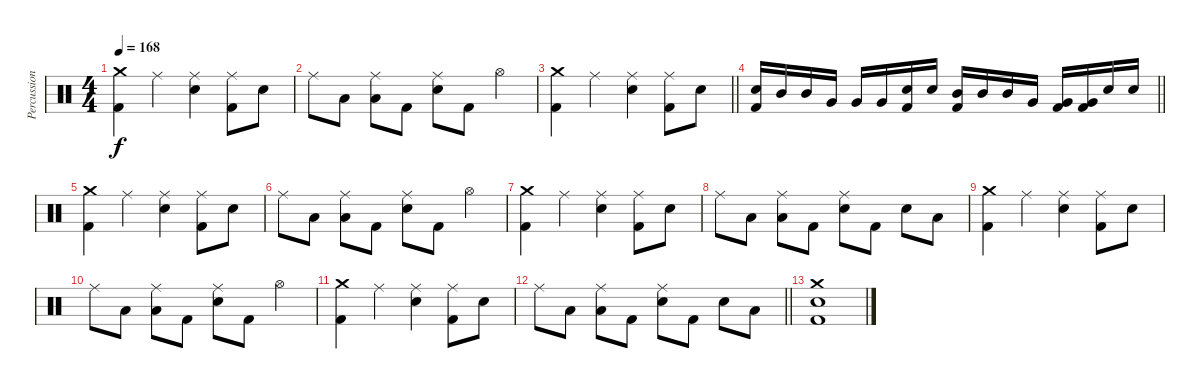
\track ("Percussion" "Percussion") {instrument percussion}
\staff {score}
\articulation defaults
\ts (4 4)
\tempo 168
\clef neutral
\ks c
("Crash medium (hit)" "Kick (hit) 2").4{dy f} "Ride (middle)".4 ("Ride (middle)" "Electric Snare (hit)").4 ("Ride (middle)" "Kick (hit) 2").8 "Electric Snare (hit)".8 |
"Ride (middle)".8 "Low Tom (hit)".8 ("Ride (middle)" "Low Tom (hit)").8 "Kick (hit) 2".8 ("Ride (middle)" "Electric Snare (hit)").8 "Kick (hit) 2".8 "Hi-Hat (open)".4 |
\barLineRight lightlight
("Crash medium (hit)" "Kick (hit) 2").4 "Ride (middle)".4 ("Ride (middle)" "Electric Snare (hit)").4 ("Ride (middle)" "Kick (hit) 2").8 "Electric Snare (hit)".8 |
\barLineRight lightlight
("Electric Snare (hit)" "Kick (hit) 2").16 "Mid Tom (hit)".16 "Mid Tom (hit)".16 "Very Low Tom (hit)".16 "Very Low Tom (hit)".16 "Very Low Tom (hit)".16 ("Electric Snare (hit)" "Kick (hit) 2").16 "Electric Snare (hit)".16 ("Mid Tom (hit)" "Kick (hit) 2").16 "Mid Tom (hit)".16 "Mid Tom (hit)".16 "Very Low Tom (hit)".16 ("Very Low Tom (hit)" "Kick (hit) 2").16 ("Very Low Tom (hit)" "Kick (hit) 2").16 "Electric Snare (hit)".16 "Electric Snare (hit)".16 |
\section ("" "")
("Crash medium (hit)" "Kick (hit) 2").4 "Ride (middle)".4 ("Ride (middle)" "Electric Snare (hit)").4 ("Ride (middle)" "Kick (hit) 2").8 "Electric Snare (hit)".8 |
"Ride (middle)".8 "Low Tom (hit)".8 ("Ride (middle)" "Low Tom (hit)").8 "Kick (hit) 2".8 ("Ride (middle)" "Electric Snare (hit)").8 "Kick (hit) 2".8 "Hi-Hat (open)".4 |
("Crash medium (hit)" "Kick (hit) 2").4 "Ride (middle)".4 ("Ride (middle)" "Electric Snare (hit)").4 ("Ride (middle)" "Kick (hit) 2").8 "Electric Snare (hit)".8 |
"Ride (middle)".8 "Low Tom (hit)".8 ("Ride (middle)" "Low Tom (hit)").8 "Kick (hit) 2".8 ("Ride (middle)" "Electric Snare (hit)").8 "Kick (hit) 2".8 "Electric Snare (hit)".8 "Low Tom (hit)".8 |
("Crash medium (hit)" "Kick (hit) 2").4 "Ride (middle)".4 ("Ride (middle)" "Electric Snare (hit)").4 ("Ride (middle)" "Kick (hit) 2").8 "Electric Snare (hit)".8 |
"Ride (middle)".8 "Low Tom (hit)".8 ("Ride (middle)" "Low Tom (hit)").8 "Kick (hit) 2".8 ("Ride (middle)" "Electric Snare (hit)").8 "Kick (hit) 2".8 "Hi-Hat (open)".4 |
("Crash medium (hit)" "Kick (hit) 2").4 "Ride (middle)".4 ("Ride (middle)" "Electric Snare (hit)").4 ("Ride (middle)" "Kick (hit) 2").8 "Electric Snare (hit)".8 |
\barLineRight lightlight "Ride (middle)".8 "Low Tom (hit)".8
("Ride (middle)" "Low Tom (hit)").8 "Kick (hit) 2".8 ("Ride (middle)" "Electric Snare (hit)").8 "Kick (hit) 2".8 "Electric Snare (hit)".8 "Low Tom (hit)".8 |
("Crash medium (hit)" "Electric Snare (hit)" "Kick (hit) 2").1
